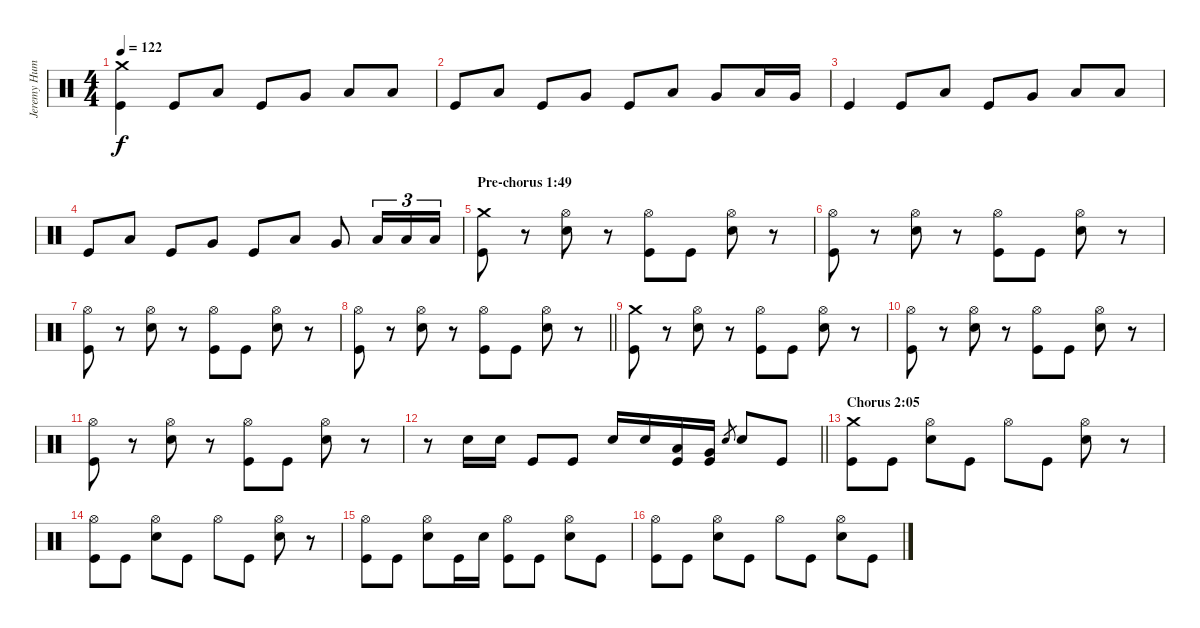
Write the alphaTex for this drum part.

\track ("Jeremy Hummel Drums]" "Jeremy Hum") {instrument percussion}
\staff {score}
\articulation defaults
\ts (4 4)
\tempo 122
\clef neutral
\ks c
("Crash medium (hit)" "Kick (hit)").4{dy f} "Kick (hit)".8 "Low Tom (hit)".8 "Kick (hit)".8 "Very Low Tom (hit)".8 "Low Floor Tom (hit)".8 "Low Tom (hit)".8 |
"Kick (hit)".8 "Low Tom (hit)".8 "Kick (hit)".8 "Very Low Tom (hit)".8 "Kick (hit)".8 "Low Floor Tom (hit)".8 "Very Low Tom (hit)".8 "Low Tom (hit)".16 "Very Low Tom (hit)".16 |
"Kick (hit)".4 "Kick (hit)".8 "Low Tom (hit)".8 "Kick (hit)".8 "Very Low Tom (hit)".8 "Low Floor Tom (hit)".8 "Low Tom (hit)".8 |
"Kick (hit)".8 "Low Tom (hit)".8 "Kick (hit)".8 "Very Low Tom (hit)".8 "Kick (hit)".8 "Low Floor Tom (hit)".8 "Very Low Tom (hit)".8 "Low Tom (hit)".16{tu (3 2)} "Low Tom (hit)".16{tu (3 2)} "Low Tom (hit)".16{tu (3 2)} |
\section ("" "Pre-chorus 1:49")
("Crash medium (hit)" "Kick (hit)").8 r.8 ("Hi-Hat (open)" "Electric Snare (hit)").8 r.8 ("Hi-Hat (open)" "Kick (hit)").8 "Kick (hit)".8 ("Hi-Hat (open)" "Electric Snare (hit)").8 r.8 |
("Hi-Hat (open)" "Kick (hit)").8 r.8 ("Hi-Hat (open)" "Electric Snare (hit)").8 r.8 ("Hi-Hat (open)" "Kick (hit)").8 "Kick (hit)".8 ("Hi-Hat (open)" "Electric Snare (hit)").8 r.8 |
("Hi-Hat (open)" "Kick (hit)").8 r.8 ("Hi-Hat (open)" "Electric Snare (hit)").8 r.8 ("Hi-Hat (open)" "Kick (hit)").8 "Kick (hit)".8 ("Hi-Hat (open)" "Electric Snare (hit)").8 r.8 |
\barLineRight lightlight
("Hi-Hat (open)" "Kick (hit)").8 r.8 ("Hi-Hat (open)" "Electric Snare (hit)").8 r.8 ("Hi-Hat (open)" "Kick (hit)").8 "Kick (hit)".8 ("Hi-Hat (open)" "Electric Snare (hit)").8 r.8 |
("Crash medium (hit)" "Kick (hit)").8 r.8 ("Hi-Hat (open)" "Electric Snare (hit)").8 r.8 ("Hi-Hat (open)" "Kick (hit)").8 "Kick (hit)".8 ("Hi-Hat (open)" "Electric Snare (hit)").8 r.8 |
("Hi-Hat (open)" "Kick (hit)").8 r.8 ("Hi-Hat (open)" "Electric Snare (hit)").8 r.8 ("Hi-Hat (open)" "Kick (hit)").8 "Kick (hit)".8 ("Hi-Hat (open)" "Electric Snare (hit)").8 r.8 |
("Hi-Hat (open)" "Kick (hit)").8 r.8 ("Hi-Hat (open)" "Electric Snare (hit)").8 r.8 ("Hi-Hat (open)" "Kick (hit)").8 "Kick (hit)".8 ("Hi-Hat (open)" "Electric Snare (hit)").8 r.8 |
\barLineRight lightlight
r.8 "Electric Snare (hit)".16 "Electric Snare (hit)".16 "Kick (hit)".8 "Kick (hit)".8 "Electric Snare (hit)".16 "Electric Snare (hit)".16 ("Low Tom (hit)" "Kick (hit)").16 ("Very Low Tom (hit)" "Kick (hit)").16 "Electric Snare (hit)".8{gr} "Electric Snare (hit)".8 "Kick (hit)".8 |
\section ("" "Chorus 2:05")
("Crash medium (hit)" "Kick (hit)").8 "Kick (hit)".8 ("Hi-Hat (open)" "Electric Snare (hit)").8 "Kick (hit)".8 "Hi-Hat (open)".8 "Kick (hit)".8 ("Hi-Hat (open)" "Electric Snare (hit)").8 r.8 |
("Hi-Hat (open)" "Kick (hit)").8 "Kick (hit)".8 ("Hi-Hat (open)" "Electric Snare (hit)").8 "Kick (hit)".8 "Hi-Hat (open)".8 "Kick (hit)".8 ("Hi-Hat (open)" "Electric Snare (hit)").8 r.8 |
("Hi-Hat (open)" "Kick (hit)").8 "Kick (hit)".8 ("Hi-Hat (open)" "Electric Snare (hit)").8 "Kick (hit)".16 "Electric Snare (hit)".16 ("Hi-Hat (open)" "Kick (hit)").8 "Kick (hit)".8 ("Hi-Hat (open)" "Electric Snare (hit)").8 "Kick (hit)".8 |
("Hi-Hat (open)" "Kick (hit)").8 "Kick (hit)".8 ("Hi-Hat (open)" "Electric Snare (hit)").8 "Kick (hit)".8 "Hi-Hat (open)".8 "Kick (hit)".8 ("Hi-Hat (open)" "Electric Snare (hit)").8 "Kick (hit)".8
